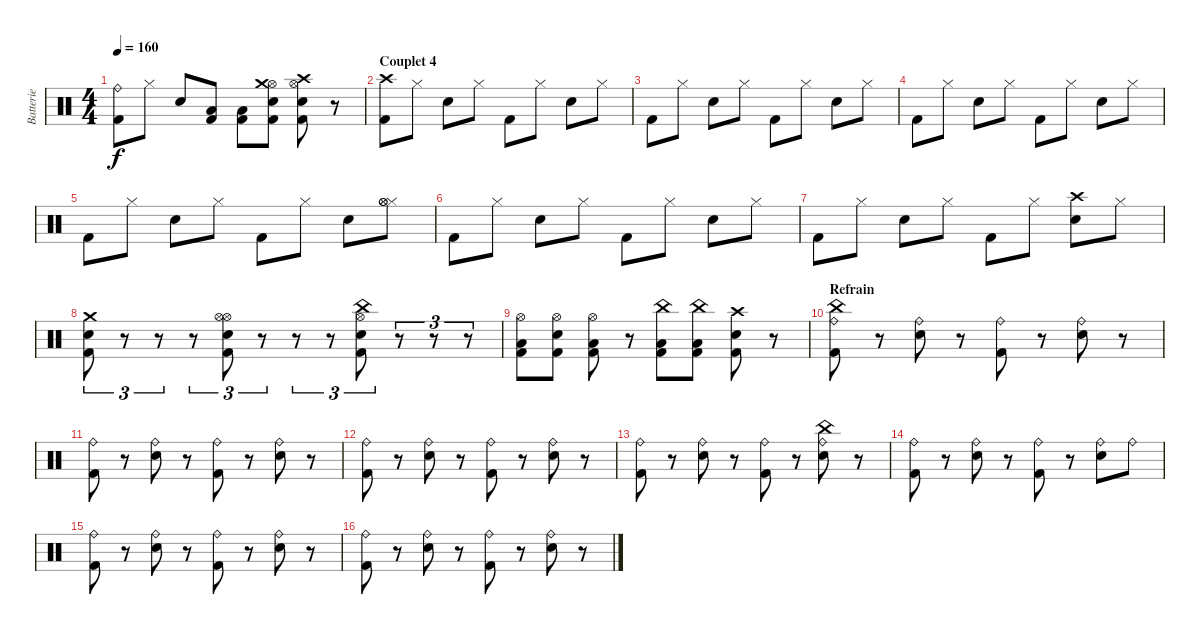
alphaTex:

\track ("Batterie" "Batterie") {instrument percussion}
\staff {score}
\articulation defaults
\ts (4 4)
\tempo 160
\clef neutral
\ks c
("Ride (bell)" "Kick (hit) 2").8{dy f} "Hi-Hat (closed)".8 "Snare (hit) 2".8 ("Low Tom (hit)" "Kick (hit) 2").8 ("Low Tom (hit)" "Kick (hit) 2").8 ("Hi-Hat (open)" "Crash medium (hit)" "Snare (hit) 2" "Kick (hit) 2").8 ("Hi-Hat (open)" "Crash high (hit)" "Snare (hit) 2" "Kick (hit) 2").8 r.8 |
\section ("" "Couplet 4")
("Crash high (hit)" "Kick (hit) 2").8 "Hi-Hat (closed)".8 "Snare (hit) 2".8 "Hi-Hat (closed)".8 "Kick (hit) 2".8 "Hi-Hat (closed)".8 "Snare (hit) 2".8 "Hi-Hat (closed)".8 |
"Kick (hit) 2".8 "Hi-Hat (closed)".8 "Snare (hit) 2".8 "Hi-Hat (closed)".8 "Kick (hit) 2".8 "Hi-Hat (closed)".8 "Snare (hit) 2".8 "Hi-Hat (closed)".8 |
"Kick (hit) 2".8 "Hi-Hat (closed)".8 "Snare (hit) 2".8 "Hi-Hat (closed)".8 "Kick (hit) 2".8 "Hi-Hat (closed)".8 "Snare (hit) 2".8 "Hi-Hat (closed)".8 |
"Kick (hit) 2".8 "Hi-Hat (closed)".8 "Snare (hit) 2".8 "Hi-Hat (closed)".8 "Kick (hit) 2".8 "Hi-Hat (closed)".8 "Snare (hit) 2".8 ("Hi-Hat (closed)" "Hi-Hat (open)" "Hi-Hat (open)").8 |
"Kick (hit) 2".8 "Hi-Hat (closed)".8 "Snare (hit) 2".8 "Hi-Hat (closed)".8 "Kick (hit) 2".8 "Hi-Hat (closed)".8 "Snare (hit) 2".8 "Hi-Hat (closed)".8 |
"Kick (hit) 2".8 "Hi-Hat (closed)".8 "Snare (hit) 2".8 "Hi-Hat (closed)".8 "Kick (hit) 2".8 "Hi-Hat (closed)".8 ("Crash high (hit)" "Snare (hit) 2").8 "Hi-Hat (closed)".8 |
("Crash medium (hit)" "Snare (hit) 2" "Kick (hit) 2").8{tu (3 2)} r.8{tu (3 2)} r.8{tu (3 2)} r.8{tu (3 2)} ("Hi-Hat (open)" "Hi-Hat (open)" "Snare (hit) 2" "Kick (hit) 2").8{tu (3 2)} r.8{tu (3 2)} r.8{tu (3 2)} r.8{tu (3 2)} ("China (hit)" "Hi-Hat (open)" "Snare (hit) 2" "Kick (hit) 2").8{tu (3 2)} r.8{tu (3 2)} r.8{tu (3 2)} r.8{tu (3 2)} |
("Hi-Hat (open)" "Low Tom (hit)" "Kick (hit) 2").8 ("Hi-Hat (open)" "Snare (hit) 2" "Kick (hit) 2").8 ("Hi-Hat (open)" "Low Tom (hit)" "Kick (hit) 2").8 r.8 ("China (hit)" "Low Tom (hit)" "Kick (hit) 2").8 ("China (hit)" "Low Tom (hit)" "Kick (hit) 2").8 ("Crash high (hit)" "Snare (hit) 2" "Kick (hit) 2").8 r.8 |
\section ("" "Refrain")
("China (hit)" "Ride (bell)" "Kick (hit) 2").8 r.8 ("Ride (bell)" "Snare (hit) 2").8 r.8 ("Ride (bell)" "Kick (hit) 2").8 r.8 ("Ride (bell)" "Snare (hit) 2").8 r.8 |
("Ride (bell)" "Kick (hit) 2").8 r.8 ("Ride (bell)" "Snare (hit) 2").8 r.8 ("Ride (bell)" "Kick (hit) 2").8 r.8 ("Ride (bell)" "Snare (hit) 2").8 r.8 |
("Ride (bell)" "Kick (hit) 2").8 r.8 ("Ride (bell)" "Snare (hit) 2").8 r.8 ("Ride (bell)" "Kick (hit) 2").8 r.8 ("Ride (bell)" "Snare (hit) 2").8 r.8 |
("Ride (bell)" "Kick (hit) 2").8 r.8 ("Ride (bell)" "Snare (hit) 2").8 r.8 ("Ride (bell)" "Kick (hit) 2").8 r.8 ("China (hit)" "Ride (bell)" "Snare (hit) 2").8 r.8 |
("Ride (bell)" "Kick (hit) 2").8 r.8 ("Ride (bell)" "Snare (hit) 2").8 r.8 ("Ride (bell)" "Kick (hit) 2").8 r.8 ("Ride (bell)" "Snare (hit) 2").8 "Ride (bell)".8 |
("Ride (bell)" "Kick (hit) 2").8 r.8 ("Ride (bell)" "Snare (hit) 2").8 r.8 ("Ride (bell)" "Kick (hit) 2").8 r.8 ("Ride (bell)" "Snare (hit) 2").8 r.8 |
("Ride (bell)" "Kick (hit) 2").8 r.8 ("Ride (bell)" "Snare (hit) 2").8 r.8 ("Ride (bell)" "Kick (hit) 2").8 r.8 ("Ride (bell)" "Snare (hit) 2").8 r.8
